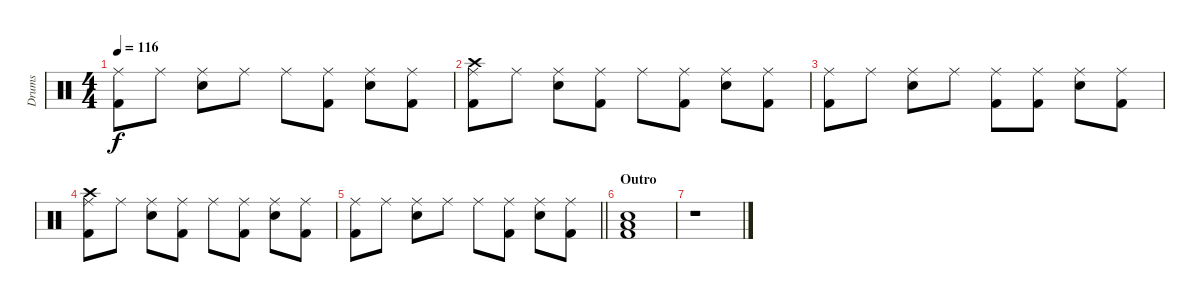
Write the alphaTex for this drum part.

\track ("Drums" "Drums") {instrument percussion}
\staff {score}
\articulation defaults
\ts (4 4)
\tempo 116
\clef neutral
\ks c
("Ride (middle)" "Kick (hit) 2").8{dy f} "Ride (middle)".8 ("Ride (middle)" "Snare (hit) 2").8 "Ride (middle)".8 "Ride (middle)".8 ("Ride (middle)" "Kick (hit) 2").8 ("Ride (middle)" "Snare (hit) 2").8 ("Ride (middle)" "Kick (hit) 2").8 |
("Crash high (hit)" "Ride (middle)" "Kick (hit) 2").8 "Ride (middle)".8 ("Ride (middle)" "Snare (hit) 2").8 ("Ride (middle)" "Kick (hit) 2").8 "Ride (middle)".8 ("Ride (middle)" "Kick (hit) 2").8 ("Ride (middle)" "Snare (hit) 2").8 ("Ride (middle)" "Kick (hit) 2").8 |
("Ride (middle)" "Kick (hit) 2").8 "Ride (middle)".8 ("Ride (middle)" "Snare (hit) 2").8 "Ride (middle)".8 ("Ride (middle)" "Kick (hit) 2").8 ("Ride (middle)" "Kick (hit) 2").8 ("Ride (middle)" "Snare (hit) 2").8 ("Ride (middle)" "Kick (hit) 2").8 |
("Crash high (hit)" "Ride (middle)" "Kick (hit) 2").8 "Ride (middle)".8 ("Ride (middle)" "Snare (hit) 2").8 ("Ride (middle)" "Kick (hit) 2").8 "Ride (middle)".8 ("Ride (middle)" "Kick (hit) 2").8 ("Ride (middle)" "Snare (hit) 2").8 ("Ride (middle)" "Kick (hit) 2").8 |
\barLineRight lightlight
("Ride (middle)" "Kick (hit) 2").8 "Ride (middle)".8 ("Ride (middle)" "Snare (hit) 2").8 "Ride (middle)".8 "Ride (middle)".8 ("Ride (middle)" "Kick (hit) 2").8 ("Ride (middle)" "Snare (hit) 2").8 ("Ride (middle)" "Kick (hit) 2").8 |
\section ("" "Outro")
("Snare (hit) 2" "Low Floor Tom (hit)" "Kick (hit) 2").1 |
r.1
